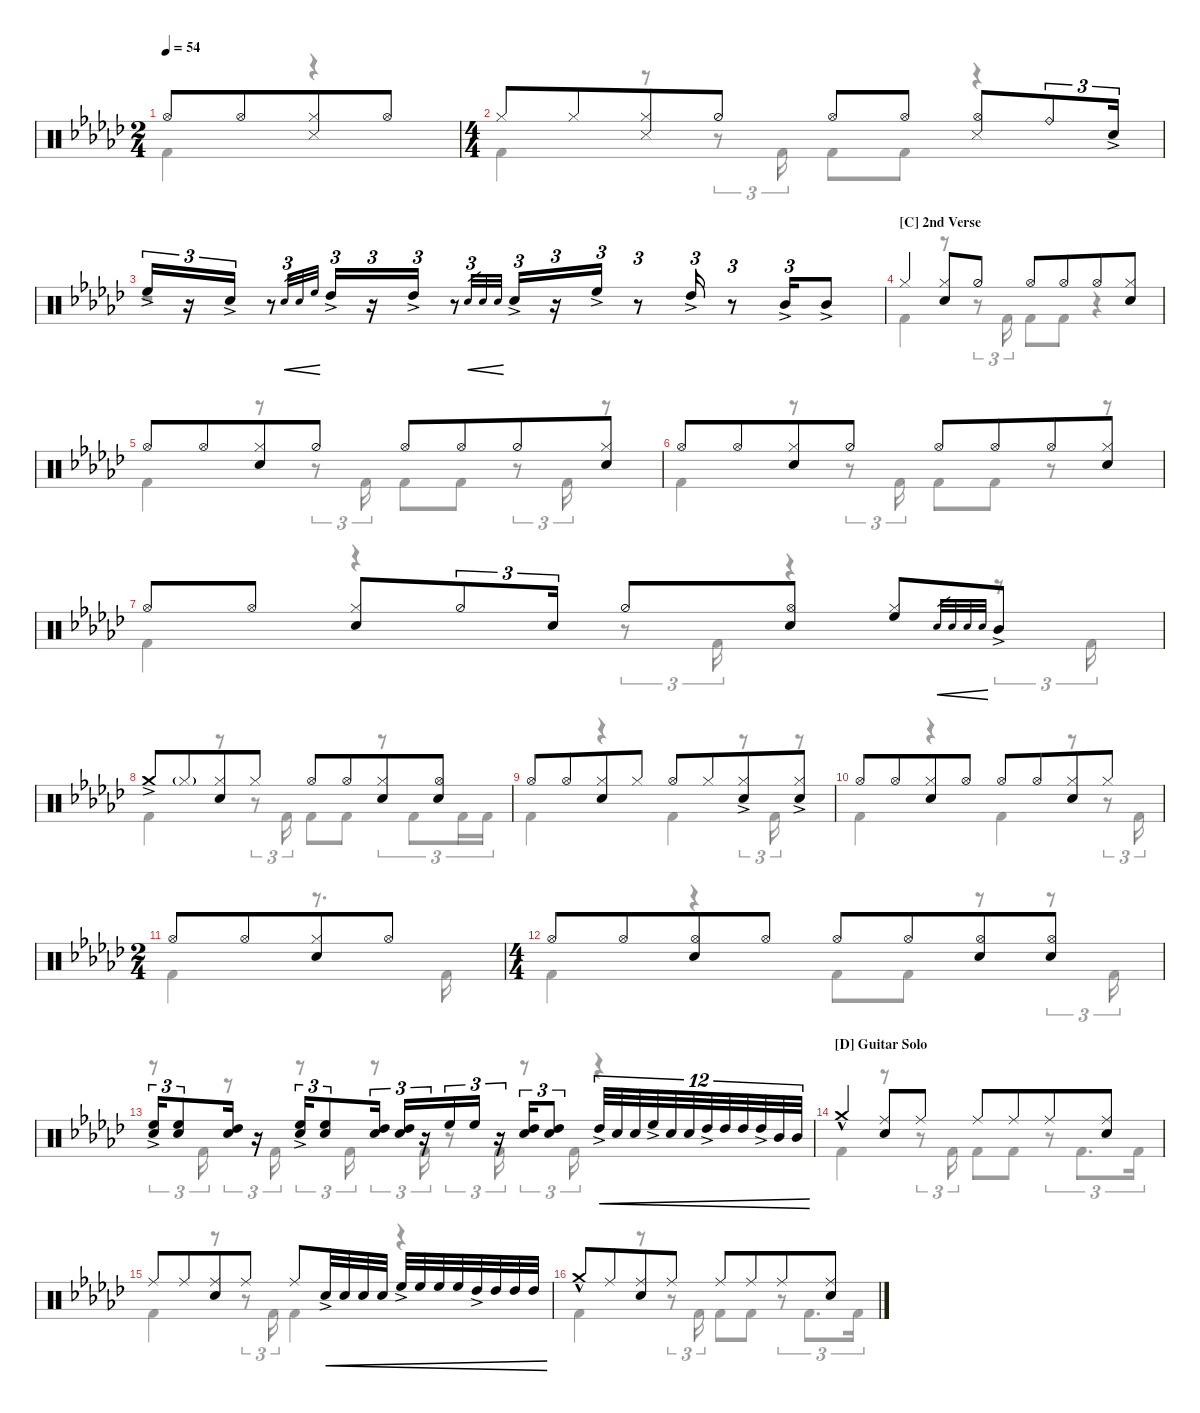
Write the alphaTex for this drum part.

\defaultSystemsLayout 4
\hideDynamics
\bracketExtendMode nobrackets
\singleTrackTrackNamePolicy hidden
\multiTrackTrackNamePolicy hidden
\otherSystemsTrackNameOrientation horizontal
\track ("Drums" "Dr.") {instrument percussion}
\staff {score}
\articulation defaults
\voice
\ts (2 4)
\tempo 54
\clef neutral
\scale
0.254451
\ks gb "Hi-Hat (open)"{acc #}.8{dy mp beam Up} "Hi-Hat (open)"{acc #}.8{beam Up beam merge}
("Hi-Hat (closed)"{acc #} "Snare (side stick) 3"{acc #}).8{beam Up} "Hi-Hat (open)"{acc #}.8{beam Up} |
\ts (4 4)
\scale
0.339113 "Hi-Hat (closed)"{acc #}.8{beam Up} "Hi-Hat (closed)"{acc #}.8{beam Up beam merge} ("Hi-Hat (closed)"{acc #} "Snare (side stick) 3"{acc #}).8{beam Up} "Hi-Hat (half)"{acc #}.8{beam Up} "Hi-Hat (open)"{acc #}.8{beam Up} "Hi-Hat (open)"{acc #}.8{beam Up} ("Hi-Hat (open)"{acc #} "Snare (side stick) 3"{acc #}).8{beam Up beam merge} "Ride (bell)"{acc #}.8{tu (3 2) beam Up} "Snare (hit) 2"{ac acc #}.16{tu (3 2) beam Up} |
\scale
0.406349 "High Floor Tom (hit)"{ac acc #}.16{tu (3 2) dy mf beam Up} r.16{tu (3 2) beam Up} "Snare (hit) 2"{ac acc #}.16{tu (3 2) beam Up} r.8{beam Up} "Snare (hit) 2"{acc #}.32{tu (3 2) gr cre beam Up} "Snare (hit) 2"{acc #}.32{tu (3 2) gr cre beam Up} "High Floor Tom (hit)"{acc #}.32{tu (3 2) gr cre beam Up} "High Tom (hit)"{ac acc #}.16{tu (3 2) beam Up} r.16{tu (3 2) beam Up} "High Tom (hit)"{ac acc #}.16{tu (3 2) beam Up} r.8{beam Up} "Snare (hit) 2"{acc #}.32{tu (3 2) gr cre beam Up} "Snare (hit) 2"{acc #}.32{tu (3 2) gr cre beam Up} "Snare (hit) 2"{acc #}.32{tu (3 2) gr cre beam Up} "Snare (hit) 2"{ac acc #}.16{tu (3 2) beam Up beam merge} r.16{tu (3 2) beam Up beam merge} "High Floor Tom (hit)"{ac acc #}.16{tu (3 2) beam Up beam split} r.8{tu (3 2) beam Up beam merge} "High Tom (hit)"{ac acc #}.16{tu (3 2) beam Up} r.8{tu (3 2) beam Up} "Mid Tom (hit)"{ac acc #}.16{tu (3 2) beam Up beam merge} "Mid Tom (hit)"{ac acc #}.8{beam Up} |
\section ("C" "2nd Verse")
"Hi-Hat (closed)"{acc #}.4{beam Up} ("Hi-Hat (closed)"{acc #} "Snare (hit) 2"{acc #}).8{beam Up} "Hi-Hat (half)"{acc #}.8{beam Up} "Hi-Hat (open)"{acc #}.8{beam Up} "Hi-Hat (open)"{acc #}.8{beam Up beam merge} "Hi-Hat (open)"{acc #}.8{beam Up} ("Hi-Hat (closed)"{acc #} "Snare (hit) 2"{acc #}).8{beam Up} |
"Hi-Hat (open)"{acc #}.8{beam Up} "Hi-Hat (open)"{acc #}.8{beam Up beam merge} ("Hi-Hat (closed)"{acc #} "Snare (hit) 2"{acc #}).8{beam Up} "Hi-Hat (half)"{acc #}.8{beam Up} "Hi-Hat (open)"{acc #}.8{beam Up} "Hi-Hat (open)"{acc #}.8{beam Up beam merge} "Hi-Hat (half)"{acc #}.8{beam Up} ("Hi-Hat (closed)"{acc #} "Snare (hit) 2"{acc #}).8{beam Up} |
"Hi-Hat (open)"{acc #}.8{beam Up} "Hi-Hat (open)"{acc #}.8{beam Up beam merge} ("Hi-Hat (closed)"{acc #} "Snare (hit) 2"{acc #}).8{beam Up} "Hi-Hat (half)"{acc #}.8{beam Up} "Hi-Hat (open)"{acc #}.8{beam Up} "Hi-Hat (open)"{acc #}.8{beam Up beam merge} "Hi-Hat (open)"{acc #}.8{beam Up} ("Hi-Hat (closed)"{acc #} "Snare (hit) 2"{acc #}).8{beam Up} |
"Hi-Hat (open)"{acc #}.8{beam Up} "Hi-Hat (open)"{acc #}.8{beam Up} ("Hi-Hat (closed)"{acc #} "Snare (hit) 2"{acc #}).8{beam Up beam merge} "Hi-Hat (half)"{acc #}.8{tu (3 2) beam Up} "Snare (hit) 2"{acc #}.16{tu (3 2) beam Up} "Hi-Hat (half)"{acc #}.8{beam Up} ("Hi-Hat (open)"{acc #} "Snare (hit) 2"{acc #}).8{beam Up} ("Hi-Hat (closed)"{acc #} "High Floor Tom (hit)"{acc #}).8{beam Up} "Snare (hit) 2"{acc #}.32{gr cre beam Up} "Snare (hit) 2"{acc #}.32{gr cre beam Up} "Snare (hit) 2"{acc #}.32{gr cre beam Up} "Snare (hit) 2"{acc #}.32{gr cre beam Up} "Mid Tom (hit)"{ac acc #}.8{beam Up} |
"Crash medium (hit)"{ac acc #}.8{beam Up} "Hi-Hat (closed)"{g acc #}.8{beam Up beam merge} ("Hi-Hat (closed)"{acc #} "Snare (hit) 2"{acc #}).8{beam Up} "Hi-Hat (closed)"{acc #}.8{beam Up} "Hi-Hat (open)"{acc #}.8{beam Up} "Hi-Hat (open)"{acc #}.8{beam Up beam merge} ("Hi-Hat (closed)"{acc #} "Snare (hit) 2"{acc #}).8{beam Up} ("Hi-Hat (open)"{acc #} "Snare (hit) 2"{acc #}).8{beam Up} |
"Hi-Hat (open)"{acc #}.8{beam Up} "Hi-Hat (open)"{acc #}.8{beam Up beam merge} ("Hi-Hat (closed)"{acc #} "Snare (hit) 2"{acc #}).8{beam Up} "Hi-Hat (closed)"{acc #}.8{beam Up} "Hi-Hat (open)"{acc #}.8{beam Up} "Hi-Hat (closed)"{acc #}.8{beam Up beam merge} ("Hi-Hat (closed)"{acc #} "Snare (hit) 2"{ac acc #}).8{beam Up} ("Hi-Hat (closed)"{acc #} "Snare (hit) 2"{ac acc #}).8{beam Up} |
"Hi-Hat (open)"{acc #}.8{beam Up} "Hi-Hat (open)"{acc #}.8{beam Up beam merge} ("Hi-Hat (closed)"{acc #} "Snare (hit) 2"{acc #}).8{beam Up} "Hi-Hat (open)"{acc #}.8{beam Up} "Hi-Hat (open)"{acc #}.8{beam Up} "Hi-Hat (open)"{acc #}.8{beam Up beam merge} ("Hi-Hat (closed)"{acc #} "Snare (hit) 2"{acc #}).8{beam Up} "Hi-Hat (closed)"{acc #}.8{beam Up} |
\ts (2 4)
\scale
0.229914 "Hi-Hat (open)"{acc #}.8{beam Up} "Hi-Hat (open)"{acc #}.8{beam Up beam merge} ("Hi-Hat (closed)"{acc #} "Snare (hit) 2"{acc #}).8{beam Up} "Hi-Hat (open)"{acc #}.8{beam Up} |
\ts (4 4)
\scale
0.273611 "Hi-Hat (open)"{acc #}.8{beam Up} "Hi-Hat (open)"{acc #}.8{beam Up beam merge} ("Hi-Hat (open)"{acc #} "Snare (hit) 2"{acc #}).8{beam Up} "Hi-Hat (open)"{acc #}.8{beam Up} "Hi-Hat (open)"{acc #}.8{beam Up} "Hi-Hat (open)"{acc #}.8{beam Up beam merge} ("Hi-Hat (open)"{acc #} "Snare (hit) 2"{acc #}).8{beam Up} ("Hi-Hat (open)"{acc #} "Snare (hit) 2"{acc #}).8{beam Up} |
\scale
0.496278 ("High Floor Tom (hit)"{ac acc #} "Snare (hit) 2"{ac acc #}).16{tu (3 2) beam Up} ("High Floor Tom (hit)"{acc #} "Snare (hit) 2"{acc #}).8{tu (3 2) beam Up beam merge} ("High Tom (hit)"{acc #} "Snare (hit) 2"{acc #}).16{beam Up beam split} r.16{beam Up} ("High Floor Tom (hit)"{ac acc #} "Snare (hit) 2"{ac acc #}).16{tu (3 2) beam Up beam merge} ("High Floor Tom (hit)"{acc #} "Snare (hit) 2"{acc #}).8{tu (3 2) beam Up beam merge} ("High Tom (hit)"{acc #} "Snare (hit) 2"{acc #}).16{tu (3 2) beam Up beam split} ("High Tom (hit)"{acc #} "Snare (hit) 2"{acc #}).16{tu (3 2) beam Up beam merge} r.16{tu (3 2) beam Up} "High Floor Tom (hit)"{acc #}.16{tu (3 2) beam Up beam merge} "High Floor Tom (hit)"{acc #}.16{tu (3 2) beam Up beam split} r.16{tu (3 2) beam Up beam merge} ("High Tom (hit)"{acc #} "Snare (hit) 2"{acc #}).16{tu (3 2) beam Up beam merge} ("High Tom (hit)"{acc #} "Snare (hit) 2"{acc #}).8{tu (3 2) beam Up beam split} "High Tom (hit)"{ac acc #}.32{tu (12 8) cre beam Up beam merge} "Snare (hit) 2"{acc #}.32{tu (12 8) cre beam Up beam merge} "Snare (hit) 2"{acc #}.32{tu (12 8) cre beam Up beam merge} "High Floor Tom (hit)"{ac acc #}.32{tu (12 8) cre beam Up beam merge} "Snare (hit) 2"{acc #}.32{tu (12 8) cre beam Up beam merge} "Snare (hit) 2"{acc #}.32{tu (12 8) cre beam Up beam merge} "High Tom (hit)"{ac acc #}.32{tu (12 8) cre beam Up beam merge} "High Tom (hit)"{acc #}.32{tu (12 8) cre beam Up beam merge} "High Tom (hit)"{acc #}.32{tu (12 8) cre beam Up beam merge} "High Tom (hit)"{ac acc #}.32{tu (12 8) cre beam Up beam merge} "Mid Tom (hit)"{acc #}.32{tu (12 8) cre beam Up beam merge} "Mid Tom (hit)"{acc #}.32{tu (12 8) cre beam Up beam split} |
\section ("D" "Guitar Solo")
"Crash medium (hit)"{hac acc #}.4{dy f beam Up} ("Ride (middle)"{acc #} "Snare (hit) 2"{acc #}).8{beam Up} "Ride (middle)"{acc #}.8{beam Up} "Ride (middle)"{acc #}.8{beam Up} "Ride (middle)"{acc #}.8{beam Up beam merge} "Ride (middle)"{acc #}.8{beam Up} ("Ride (middle)"{acc #} "Snare (hit) 2"{acc #}).8{beam Up} |
"Ride (middle)"{acc #}.8{beam Up} "Ride (middle)"{acc #}.8{beam Up beam merge} ("Ride (middle)"{acc #} "Snare (hit) 2"{acc #}).8{beam Up} "Ride (middle)"{acc #}.8{beam Up} "Ride (middle)"{acc #}.8{beam Up} "Snare (hit) 2"{ac acc #}.32{cre beam Up} "Snare (hit) 2"{acc #}.32{cre beam Up} "Snare (hit) 2"{acc #}.32{cre beam Up} "Snare (hit) 2"{acc #}.32{cre beam Up} "High Floor Tom (hit)"{ac acc #}.32{cre beam Up} "High Floor Tom (hit)"{acc #}.32{cre beam Up} "High Floor Tom (hit)"{acc #}.32{cre beam Up} "High Floor Tom (hit)"{acc #}.32{cre beam Up} "High Tom (hit)"{ac acc #}.32{cre beam Up} "High Tom (hit)"{acc #}.32{cre beam Up} "High Tom (hit)"{acc #}.32{cre beam Up} "High Tom (hit)"{acc #}.32{cre beam Up} |
\scale
0.536421 "Crash medium (hit)"{hac acc #}.8{beam Up} "Ride (middle)"{acc #}.8{beam Up beam merge} ("Ride (middle)"{acc #} "Snare (hit) 2"{acc #}).8{beam Up} "Ride (middle)"{acc #}.8{beam Up} "Ride (middle)"{acc #}.8{beam Up} "Ride (middle)"{acc #}.8{beam Up beam merge} "Ride (middle)"{acc #}.8{beam Up} ("Ride (middle)"{acc #} "Snare (hit) 2"{acc #}).8{beam Up}
\voice
\clef neutral
\ottava regular
\simile none
\scale
0.254451
\ks gb "Kick (hit) 2"{acc #}.4{dy mp beam Down}
r.4{beam Down} |
\scale
0.339113 "Kick (hit) 2"{acc #}.4{beam Down} r.8{beam Down} r.8{tu (3 2) beam Down} "Kick (hit) 2"{acc #}.16{tu (3 2) beam Down} "Kick (hit) 2"{acc #}.8{beam Down} "Kick (hit) 2"{acc #}.8{beam Down} r.4{beam Down} |
\scale
0.406349 r.1{beam Down} |
"Kick (hit) 2"{acc #}.4{dy mf beam Down} r.8{beam Down} r.8{tu (3 2) beam Down} "Kick (hit) 2"{acc #}.16{tu (3 2) beam Down} "Kick (hit) 2"{acc #}.8{beam Down} "Kick (hit) 2"{acc #}.8{beam Down} r.4{beam Down} |
"Kick (hit) 2"{acc #}.4{beam Down} r.8{beam Down} r.8{tu (3 2) beam Down} "Kick (hit) 2"{acc #}.16{tu (3 2) beam Down} "Kick (hit) 2"{acc #}.8{beam Down} "Kick (hit) 2"{acc #}.8{beam Down} r.8{tu (3 2) beam Down} "Kick (hit) 2"{acc #}.16{tu (3 2) beam Down} r.8{beam Down} |
"Kick (hit) 2"{acc #}.4{beam Down} r.8{beam Down} r.8{tu (3 2) beam Down} "Kick (hit) 2"{acc #}.16{tu (3 2) beam Down} "Kick (hit) 2"{acc #}.8{beam Down} "Kick (hit) 2"{acc #}.8{beam Down} r.8{beam Down} r.8{beam Down} |
"Kick (hit) 2"{acc #}.4{beam Down} r.4{beam Down} r.8{tu (3 2) beam Down} "Kick (hit) 2"{acc #}.16{tu (3 2) beam Down} r.4{beam Down} r.8{tu (3 2) beam Down} "Kick (hit) 2"{acc #}.16{tu (3 2) beam Down} |
"Kick (hit) 2"{acc #}.4{beam Down} r.8{beam Down} r.8{tu (3 2) beam Down} "Kick (hit) 2"{acc #}.16{tu (3 2) beam Down} "Kick (hit) 2"{acc #}.8{beam Down} "Kick (hit) 2"{acc #}.8{beam Down} r.8{tu (3 2) beam Down} "Kick (hit) 2"{acc #}.8{tu (3 2) beam Down} "Kick (hit) 2"{acc #}.16{tu (3 2) beam Down} "Kick (hit) 2"{acc #}.16{tu (3 2) beam Down} |
"Kick (hit) 2"{acc #}.4{beam Down} r.4{beam Down} "Kick (hit) 2"{acc #}.4{beam Down} r.8{tu (3 2) beam Down} "Kick (hit) 2"{acc #}.16{tu (3 2) beam Down} r.8{beam Down} |
"Kick (hit) 2"{acc #}.4{beam Down} r.4{beam Down} "Kick (hit) 2"{acc #}.4{beam Down} r.8{beam Down} r.8{tu (3 2) beam Down} "Kick (hit) 2"{acc #}.16{tu (3 2) beam Down} |
\scale
0.229914 "Kick (hit) 2"{acc #}.4{beam Down} r.8{d beam Down} "Kick (hit) 2"{acc #}.16{beam Down} |
\scale
0.273611 "Kick (hit) 2"{acc #}.4{beam Down} r.4{beam Down} "Kick (hit) 2"{acc #}.8{beam Down} "Kick (hit) 2"{acc #}.8{beam Down} r.8{beam Down} r.8{tu (3 2) beam Down} "Kick (hit) 2"{acc #}.16{tu (3 2) beam Down} |
\scale
0.496278 r.8{tu (3 2) beam Down} "Kick (hit) 2"{acc #}.16{tu (3 2) beam Down} r.8{tu (3 2) beam Down} "Kick (hit) 2"{acc #}.16{tu (3 2) beam Down} r.8{tu (3 2) beam Down} "Kick (hit) 2"{acc #}.16{tu (3 2) beam Down} r.8{tu (3 2) beam Down} "Kick (hit) 2"{acc #}.16{tu (3 2) beam Down} r.8{tu (3 2) beam Down} "Kick (hit) 2"{acc #}.16{tu (3 2) beam Down} r.8{tu (3 2) beam Down} "Kick (hit) 2"{acc #}.16{tu (3 2) beam Down} r.4{beam Down} |
"Kick (hit) 2"{acc #}.4{dy f beam Down} r.8{beam Down} r.8{tu (3 2) beam Down} "Kick (hit) 2"{acc #}.16{tu (3 2) beam Down} "Kick (hit) 2"{acc #}.8{beam Down} "Kick (hit) 2"{acc #}.8{beam Down} r.8{tu (3 2) beam Down} "Kick (hit) 2"{acc #}.8{d tu (3 2) beam Down} "Kick (hit) 2"{acc #}.16{tu (3 2) beam Down} |
"Kick (hit) 2"{acc #}.4{beam Down} r.8{beam Down} r.8{tu (3 2) beam Down} "Kick (hit) 2"{acc #}.16{tu (3 2) beam Down} "Kick (hit) 2"{acc #}.4{beam Down} r.4{beam Down} |
\scale
0.536421 "Kick (hit) 2"{acc #}.4{beam Down} r.8{beam Down} r.8{tu (3 2) beam Down} "Kick (hit) 2"{acc #}.16{tu (3 2) beam Down} "Kick (hit) 2"{acc #}.8{beam Down} "Kick (hit) 2"{acc #}.8{beam Down} r.8{tu (3 2) beam Down} "Kick (hit) 2"{acc #}.8{d tu (3 2) beam Down} "Kick (hit) 2"{acc #}.16{tu (3 2) beam Down}
